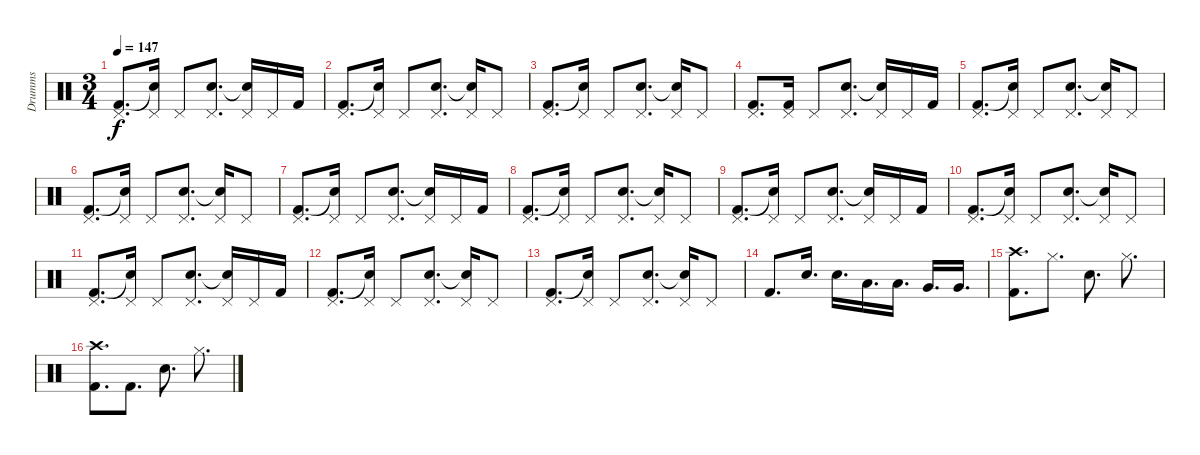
\track ("Drumms" "Drumms") {instrument percussion}
\staff {score}
\articulation defaults
\ts (3 4)
\tempo 147
\clef neutral
\ks c
("Kick (hit) 2" "Pedal Hi-Hat (hit)").8{d dy f} ("Snare (hit)"{t} "Pedal Hi-Hat (hit)").16 "Pedal Hi-Hat (hit)".8 ("Electric Snare (hit)" "Pedal Hi-Hat (hit)").8{d} ("Snare (hit)"{t} "Pedal Hi-Hat (hit)").16 "Pedal Hi-Hat (hit)".16 "Kick (hit) 2".16 |
("Kick (hit) 2" "Pedal Hi-Hat (hit)").8{d} ("Snare (hit)"{t} "Pedal Hi-Hat (hit)").16 "Pedal Hi-Hat (hit)".8 ("Electric Snare (hit)" "Pedal Hi-Hat (hit)").8{d} ("Snare (hit)"{t} "Pedal Hi-Hat (hit)").16 "Pedal Hi-Hat (hit)".8 |
("Kick (hit) 2" "Pedal Hi-Hat (hit)").8{d} ("Snare (hit)"{t} "Pedal Hi-Hat (hit)").16 "Pedal Hi-Hat (hit)".8 ("Electric Snare (hit)" "Pedal Hi-Hat (hit)").8{d} ("Snare (hit)"{t} "Pedal Hi-Hat (hit)").16 "Pedal Hi-Hat (hit)".8 |
("Kick (hit) 2" "Pedal Hi-Hat (hit)").8{d} ("Kick (hit) 2" "Pedal Hi-Hat (hit)").16 "Pedal Hi-Hat (hit)".8 ("Electric Snare (hit)" "Pedal Hi-Hat (hit)").8{d} ("Snare (hit)"{t} "Pedal Hi-Hat (hit)").16 "Pedal Hi-Hat (hit)".16 "Kick (hit) 2".16 |
("Kick (hit) 2" "Pedal Hi-Hat (hit)").8{d} ("Snare (hit)"{t} "Pedal Hi-Hat (hit)").16 "Pedal Hi-Hat (hit)".8 ("Electric Snare (hit)" "Pedal Hi-Hat (hit)").8{d} ("Snare (hit)"{t} "Pedal Hi-Hat (hit)").16 "Pedal Hi-Hat (hit)".8 |
("Kick (hit) 2" "Pedal Hi-Hat (hit)").8{d} ("Snare (hit)"{t} "Pedal Hi-Hat (hit)").16 "Pedal Hi-Hat (hit)".8 ("Electric Snare (hit)" "Pedal Hi-Hat (hit)").8{d} ("Snare (hit)"{t} "Pedal Hi-Hat (hit)").16 "Pedal Hi-Hat (hit)".8 |
("Kick (hit) 2" "Pedal Hi-Hat (hit)").8{d} ("Snare (hit)"{t} "Pedal Hi-Hat (hit)").16 "Pedal Hi-Hat (hit)".8 ("Electric Snare (hit)" "Pedal Hi-Hat (hit)").8{d} ("Snare (hit)"{t} "Pedal Hi-Hat (hit)").16 "Pedal Hi-Hat (hit)".16 "Kick (hit) 2".16 |
("Kick (hit) 2" "Pedal Hi-Hat (hit)").8{d} ("Snare (hit)"{t} "Pedal Hi-Hat (hit)").16 "Pedal Hi-Hat (hit)".8 ("Electric Snare (hit)" "Pedal Hi-Hat (hit)").8{d} ("Snare (hit)"{t} "Pedal Hi-Hat (hit)").16 "Pedal Hi-Hat (hit)".8 |
("Kick (hit) 2" "Pedal Hi-Hat (hit)").8{d} ("Snare (hit)"{t} "Pedal Hi-Hat (hit)").16 "Pedal Hi-Hat (hit)".8 ("Electric Snare (hit)" "Pedal Hi-Hat (hit)").8{d} ("Snare (hit)"{t} "Pedal Hi-Hat (hit)").16 "Pedal Hi-Hat (hit)".16 "Kick (hit) 2".16 |
("Kick (hit) 2" "Pedal Hi-Hat (hit)").8{d} ("Snare (hit)"{t} "Pedal Hi-Hat (hit)").16 "Pedal Hi-Hat (hit)".8 ("Electric Snare (hit)" "Pedal Hi-Hat (hit)").8{d} ("Snare (hit)"{t} "Pedal Hi-Hat (hit)").16 "Pedal Hi-Hat (hit)".8 |
("Kick (hit) 2" "Pedal Hi-Hat (hit)").8{d} ("Snare (hit)"{t} "Pedal Hi-Hat (hit)").16 "Pedal Hi-Hat (hit)".8 ("Electric Snare (hit)" "Pedal Hi-Hat (hit)").8{d} ("Snare (hit)"{t} "Pedal Hi-Hat (hit)").16 "Pedal Hi-Hat (hit)".16 "Kick (hit) 2".16 |
("Kick (hit) 2" "Pedal Hi-Hat (hit)").8{d} ("Snare (hit)"{t} "Pedal Hi-Hat (hit)").16 "Pedal Hi-Hat (hit)".8 ("Electric Snare (hit)" "Pedal Hi-Hat (hit)").8{d} ("Snare (hit)"{t} "Pedal Hi-Hat (hit)").16 "Pedal Hi-Hat (hit)".8 |
("Kick (hit) 2" "Pedal Hi-Hat (hit)").8{d} ("Snare (hit)"{t} "Pedal Hi-Hat (hit)").16 "Pedal Hi-Hat (hit)".8 ("Electric Snare (hit)" "Pedal Hi-Hat (hit)").8{d} ("Snare (hit)"{t} "Pedal Hi-Hat (hit)").16 "Pedal Hi-Hat (hit)".8 |
\section ("" "")
"Kick (hit) 2".8{d} "Electric Snare (hit)".16{d} "Electric Snare (hit)".16{d} "Low Tom (hit)".16{d} "Low Tom (hit)".16{d} "Very Low Tom (hit)".16{d} "Very Low Tom (hit)".16{d} |
("Crash high (hit)" "Kick (hit) 2").8{d} "Hi-Hat (closed)".8{d} "Electric Snare (hit)".8{d} "Hi-Hat (closed)".8{d} |
("Crash high (hit)" "Kick (hit) 2").8{d} "Kick (hit) 2".8{d} "Electric Snare (hit)".8{d} "Hi-Hat (closed)".8{d}
